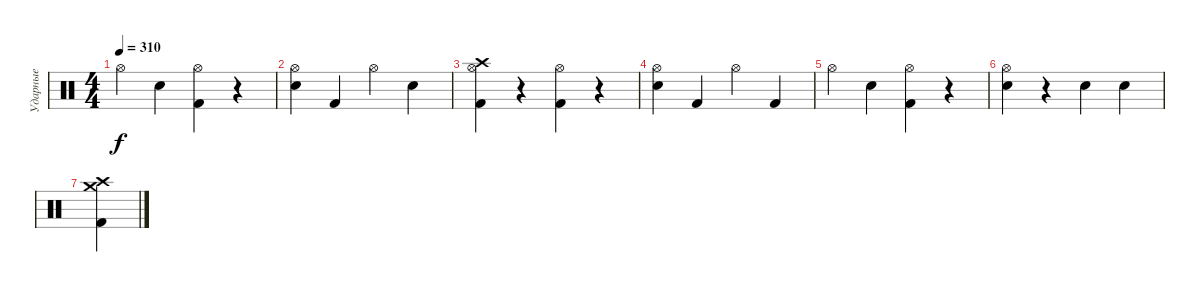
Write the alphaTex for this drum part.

\track ("Ударные" "Ударные") {instrument percussion}
\staff {score}
\articulation defaults
\ts (4 4)
\tempo 310
\clef neutral
\ks c "Hi-Hat (open)".4{dy f} "Electric Snare (hit)".4
("Hi-Hat (open)" "Kick (hit) 2").4 r.4 |
("Hi-Hat (open)" "Electric Snare (hit)").4 "Kick (hit) 2".4 "Hi-Hat (open)".4 "Electric Snare (hit)".4 |
("Crash high (hit)" "Hi-Hat (open)" "Kick (hit) 2").4 r.4 ("Hi-Hat (open)" "Kick (hit) 2").4 r.4 |
("Hi-Hat (open)" "Electric Snare (hit)").4 "Kick (hit) 2".4 "Hi-Hat (open)".4 "Kick (hit) 2".4 |
"Hi-Hat (open)".4 "Electric Snare (hit)".4 ("Hi-Hat (open)" "Kick (hit) 2").4 r.4 |
("Hi-Hat (open)" "Electric Snare (hit)").4 r.4 "Electric Snare (hit)".4 "Electric Snare (hit)".4 |
("Crash medium (hit)" "Crash high (hit)" "Kick (hit) 2").4
